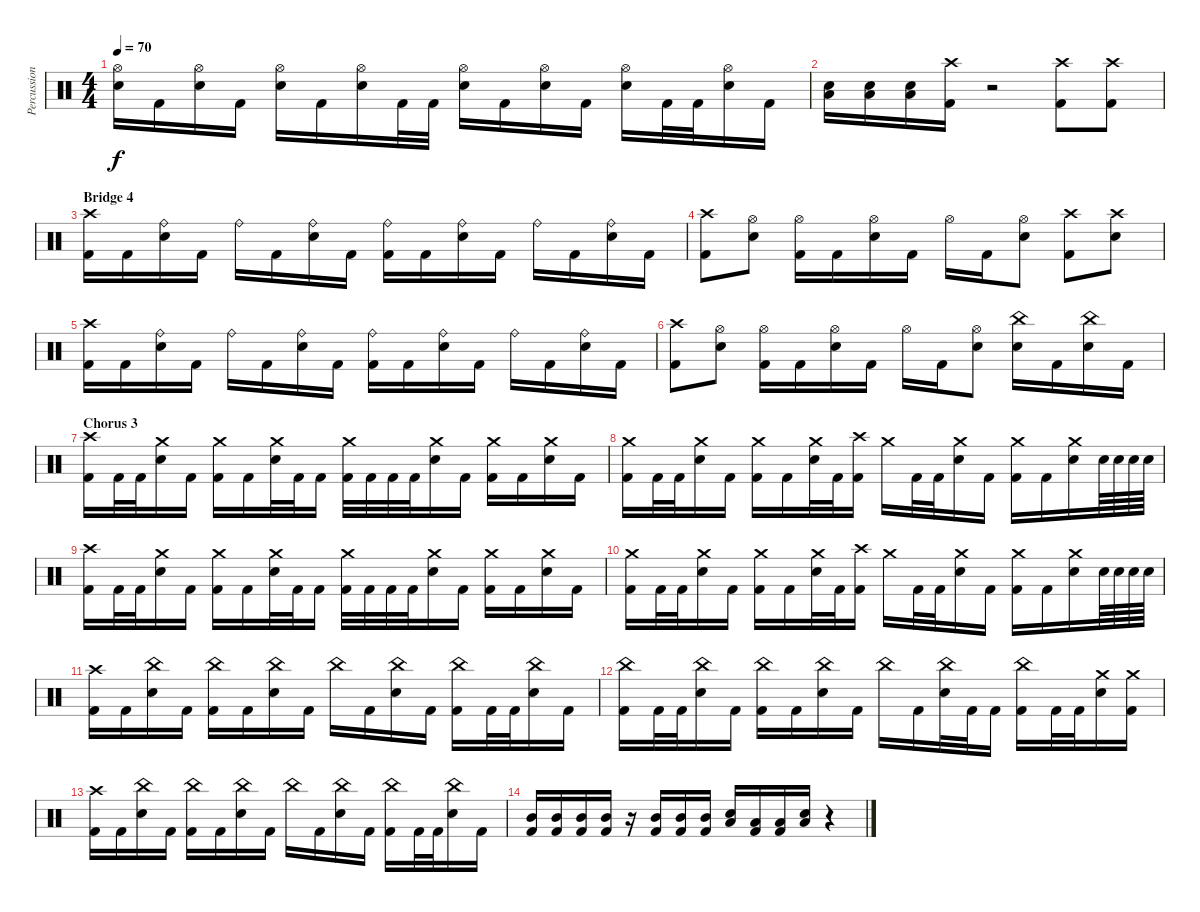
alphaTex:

\track ("Percussion" "Percussion") {instrument percussion}
\staff {score}
\articulation defaults
\ts (4 4)
\tempo 70
\clef neutral
\ks c
("Electric Snare (hit)" "Hi-Hat (open)").16{dy f} "Kick (hit) 2".16 ("Electric Snare (hit)" "Hi-Hat (open)").16 "Kick (hit) 2".16 ("Electric Snare (hit)" "Hi-Hat (open)").16 "Kick (hit) 2".16 ("Electric Snare (hit)" "Hi-Hat (open)").16 "Kick (hit) 2".32 "Kick (hit) 2".32 ("Electric Snare (hit)" "Hi-Hat (open)").16 "Kick (hit) 2".16 ("Electric Snare (hit)" "Hi-Hat (open)").16 "Kick (hit) 2".16 ("Electric Snare (hit)" "Hi-Hat (open)").16 "Kick (hit) 2".32 "Kick (hit) 2".32 ("Electric Snare (hit)" "Hi-Hat (open)").16 "Kick (hit) 2".16 |
("Electric Snare (hit)" "Low Tom (hit)").16 ("Electric Snare (hit)" "Low Tom (hit)").16 ("Electric Snare (hit)" "Low Tom (hit)").16 ("Kick (hit) 2" "Crash high (hit)").16 r.2 ("Kick (hit) 2" "Crash high (hit)").8 ("Kick (hit) 2" "Crash high (hit)").8 |
\section ("" "Bridge 4")
("Kick (hit) 2" "Crash high (hit)").16 "Kick (hit) 2".16 ("Electric Snare (hit)" "Ride (bell)").16 "Kick (hit) 2".16 "Ride (bell)".16 "Kick (hit) 2".16 ("Electric Snare (hit)" "Ride (bell)").16 "Kick (hit) 2".16 ("Kick (hit) 2" "Ride (bell)").16 "Kick (hit) 2".16 ("Electric Snare (hit)" "Ride (bell)").16 "Kick (hit) 2".16 "Ride (bell)".16 "Kick (hit) 2".16 ("Electric Snare (hit)" "Ride (bell)").16 "Kick (hit) 2".16 |
("Kick (hit) 2" "Crash high (hit)").8 ("Electric Snare (hit)" "Hi-Hat (open)").8 ("Kick (hit) 2" "Hi-Hat (open)").16 "Kick (hit) 2".16 ("Electric Snare (hit)" "Hi-Hat (open)").16 "Kick (hit) 2".16 "Hi-Hat (open)".16 "Kick (hit) 2".16 ("Electric Snare (hit)" "Hi-Hat (open)").8 ("Kick (hit) 2" "Crash high (hit)").8 ("Electric Snare (hit)" "Crash high (hit)").8 |
("Kick (hit) 2" "Crash high (hit)").16 "Kick (hit) 2".16 ("Electric Snare (hit)" "Ride (bell)").16 "Kick (hit) 2".16 "Ride (bell)".16 "Kick (hit) 2".16 ("Electric Snare (hit)" "Ride (bell)").16 "Kick (hit) 2".16 ("Kick (hit) 2" "Ride (bell)").16 "Kick (hit) 2".16 ("Electric Snare (hit)" "Ride (bell)").16 "Kick (hit) 2".16 "Ride (bell)".16 "Kick (hit) 2".16 ("Electric Snare (hit)" "Ride (bell)").16 "Kick (hit) 2".16 |
("Kick (hit) 2" "Crash high (hit)").8 ("Electric Snare (hit)" "Hi-Hat (open)").8 ("Kick (hit) 2" "Hi-Hat (open)").16 "Kick (hit) 2".16 ("Electric Snare (hit)" "Hi-Hat (open)").16 "Kick (hit) 2".16 "Hi-Hat (open)".16 "Kick (hit) 2".16 ("Electric Snare (hit)" "Hi-Hat (open)").8 ("Electric Snare (hit)" "China (hit)").16 "Kick (hit) 2".16 ("Electric Snare (hit)" "China (hit)").16 "Kick (hit) 2".16 |
\section ("" "Chorus 3")
("Kick (hit) 2" "Crash high (hit)").16 "Kick (hit) 2".32 "Kick (hit) 2".32 ("Electric Snare (hit)" "Crash medium (hit)").16 "Kick (hit) 2".16 ("Kick (hit) 2" "Crash medium (hit)").16 "Kick (hit) 2".16 ("Electric Snare (hit)" "Crash medium (hit)").32 "Kick (hit) 2".32 "Kick (hit) 2".16 ("Kick (hit) 2" "Crash medium (hit)").32 "Kick (hit) 2".32 "Kick (hit) 2".32 "Kick (hit) 2".32 ("Electric Snare (hit)" "Crash medium (hit)").16 "Kick (hit) 2".16 ("Kick (hit) 2" "Crash medium (hit)").16 "Kick (hit) 2".16 ("Electric Snare (hit)" "Crash medium (hit)").16 "Kick (hit) 2".16 |
("Kick (hit) 2" "Crash medium (hit)").16 "Kick (hit) 2".32 "Kick (hit) 2".32 ("Electric Snare (hit)" "Crash medium (hit)").16 "Kick (hit) 2".16 ("Kick (hit) 2" "Crash medium (hit)").16 "Kick (hit) 2".16 ("Electric Snare (hit)" "Crash medium (hit)").32 "Kick (hit) 2".32 ("Kick (hit) 2" "Crash high (hit)").16 "Crash medium (hit)".16 "Kick (hit) 2".32 "Kick (hit) 2".32 ("Electric Snare (hit)" "Crash medium (hit)").16 "Kick (hit) 2".16 ("Kick (hit) 2" "Crash medium (hit)").16 "Kick (hit) 2".16 ("Electric Snare (hit)" "Crash medium (hit)").16 "Electric Snare (hit)".64 "Electric Snare (hit)".64 "Electric Snare (hit)".64 "Electric Snare (hit)".64 |
("Kick (hit) 2" "Crash high (hit)").16 "Kick (hit) 2".32 "Kick (hit) 2".32 ("Electric Snare (hit)" "Crash medium (hit)").16 "Kick (hit) 2".16 ("Kick (hit) 2" "Crash medium (hit)").16 "Kick (hit) 2".16 ("Electric Snare (hit)" "Crash medium (hit)").32 "Kick (hit) 2".32 "Kick (hit) 2".16 ("Kick (hit) 2" "Crash medium (hit)").32 "Kick (hit) 2".32 "Kick (hit) 2".32 "Kick (hit) 2".32 ("Electric Snare (hit)" "Crash medium (hit)").16 "Kick (hit) 2".16 ("Kick (hit) 2" "Crash medium (hit)").16 "Kick (hit) 2".16 ("Electric Snare (hit)" "Crash medium (hit)").16 "Kick (hit) 2".16 |
("Kick (hit) 2" "Crash medium (hit)").16 "Kick (hit) 2".32 "Kick (hit) 2".32 ("Electric Snare (hit)" "Crash medium (hit)").16 "Kick (hit) 2".16 ("Kick (hit) 2" "Crash medium (hit)").16 "Kick (hit) 2".16 ("Electric Snare (hit)" "Crash medium (hit)").32 "Kick (hit) 2".32 ("Kick (hit) 2" "Crash high (hit)").16 "Crash medium (hit)".16 "Kick (hit) 2".32 "Kick (hit) 2".32 ("Electric Snare (hit)" "Crash medium (hit)").16 "Kick (hit) 2".16 ("Kick (hit) 2" "Crash medium (hit)").16 "Kick (hit) 2".16 ("Electric Snare (hit)" "Crash medium (hit)").16 "Electric Snare (hit)".64 "Electric Snare (hit)".64 "Electric Snare (hit)".64 "Electric Snare (hit)".64 |
("Kick (hit) 2" "Crash high (hit)").16 "Kick (hit) 2".16 ("Electric Snare (hit)" "China (hit)").16 "Kick (hit) 2".16 ("Kick (hit) 2" "China (hit)").16 "Kick (hit) 2".16 ("Electric Snare (hit)" "China (hit)").16 "Kick (hit) 2".16 "China (hit)".16 "Kick (hit) 2".16 ("Electric Snare (hit)" "China (hit)").16 "Kick (hit) 2".16 ("Kick (hit) 2" "China (hit)").16 "Kick (hit) 2".32 "Kick (hit) 2".32 ("Electric Snare (hit)" "China (hit)").16 "Kick (hit) 2".16 |
("Kick (hit) 2" "China (hit)").16 "Kick (hit) 2".32 "Kick (hit) 2".32 ("Electric Snare (hit)" "China (hit)").16 "Kick (hit) 2".16 ("Kick (hit) 2" "China (hit)").16 "Kick (hit) 2".16 ("Electric Snare (hit)" "China (hit)").16 "Kick (hit) 2".16 "China (hit)".16 "Kick (hit) 2".16 ("Electric Snare (hit)" "China (hit)").32 "Kick (hit) 2".32 "Kick (hit) 2".16 ("Kick (hit) 2" "China (hit)").16 "Kick (hit) 2".32 "Kick (hit) 2".32 ("Electric Snare (hit)" "Crash medium (hit)").16 ("Kick (hit) 2" "Crash medium (hit)").16 |
("Kick (hit) 2" "Crash high (hit)").16 "Kick (hit) 2".16 ("Electric Snare (hit)" "China (hit)").16 "Kick (hit) 2".16 ("Kick (hit) 2" "China (hit)").16 "Kick (hit) 2".16 ("Electric Snare (hit)" "China (hit)").16 "Kick (hit) 2".16 "China (hit)".16 "Kick (hit) 2".16 ("Electric Snare (hit)" "China (hit)").16 "Kick (hit) 2".16 ("Kick (hit) 2" "China (hit)").16 "Kick (hit) 2".32 "Kick (hit) 2".32 ("Electric Snare (hit)" "China (hit)").16 "Kick (hit) 2".16 |
("Kick (hit) 2" "Mid Tom (hit)").16 ("Kick (hit) 2" "Mid Tom (hit)").16 ("Kick (hit) 2" "Mid Tom (hit)").16 ("Kick (hit) 2" "Mid Tom (hit)").16 r.16 ("Kick (hit) 2" "Mid Tom (hit)").16 ("Kick (hit) 2" "Mid Tom (hit)").16 ("Kick (hit) 2" "Mid Tom (hit)").16 ("Electric Snare (hit)" "Low Tom (hit)").16 ("Kick (hit) 2" "Low Tom (hit)").16 ("Kick (hit) 2" "Low Tom (hit)").16 ("Electric Snare (hit)" "Low Tom (hit)").16 r.4
